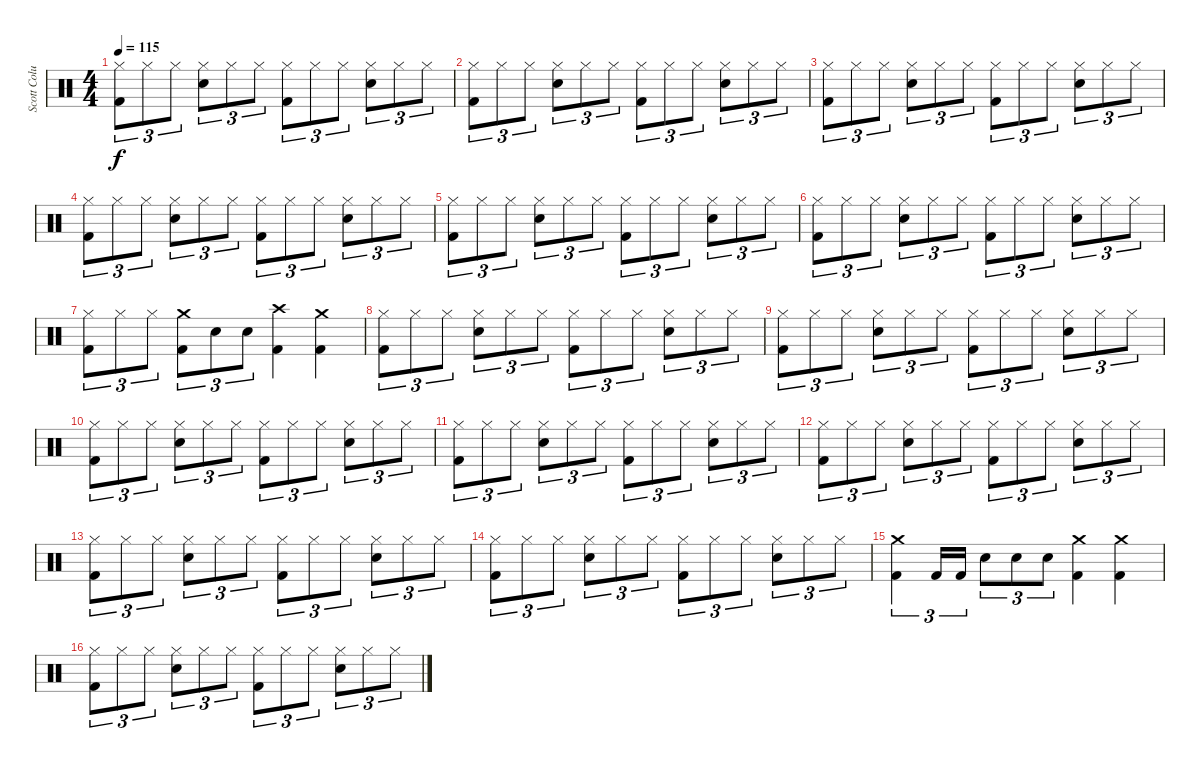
\track ("Scott Columus(Drums)" "Scott Colu") {instrument percussion}
\staff {score}
\articulation defaults
\ts (4 4)
\tempo 115
\clef neutral
\ks c
("Hi-Hat (closed)" "Kick (hit) 2").8{tu (3 2) dy f} "Hi-Hat (closed)".8{tu (3 2)} "Hi-Hat (closed)".8{tu (3 2)} ("Hi-Hat (closed)" "Snare (hit) 2").8{tu (3 2)} "Hi-Hat (closed)".8{tu (3 2)} "Hi-Hat (closed)".8{tu (3 2)} ("Hi-Hat (closed)" "Kick (hit) 2").8{tu (3 2)} "Hi-Hat (closed)".8{tu (3 2)} "Hi-Hat (closed)".8{tu (3 2)} ("Hi-Hat (closed)" "Snare (hit) 2").8{tu (3 2)} "Hi-Hat (closed)".8{tu (3 2)} "Hi-Hat (closed)".8{tu (3 2)} |
("Hi-Hat (closed)" "Kick (hit) 2").8{tu (3 2)} "Hi-Hat (closed)".8{tu (3 2)} "Hi-Hat (closed)".8{tu (3 2)} ("Hi-Hat (closed)" "Snare (hit) 2").8{tu (3 2)} "Hi-Hat (closed)".8{tu (3 2)} "Hi-Hat (closed)".8{tu (3 2)} ("Hi-Hat (closed)" "Kick (hit) 2").8{tu (3 2)} "Hi-Hat (closed)".8{tu (3 2)} "Hi-Hat (closed)".8{tu (3 2)} ("Hi-Hat (closed)" "Snare (hit) 2").8{tu (3 2)} "Hi-Hat (closed)".8{tu (3 2)} "Hi-Hat (closed)".8{tu (3 2)} |
("Hi-Hat (closed)" "Kick (hit) 2").8{tu (3 2)} "Hi-Hat (closed)".8{tu (3 2)} "Hi-Hat (closed)".8{tu (3 2)} ("Hi-Hat (closed)" "Snare (hit) 2").8{tu (3 2)} "Hi-Hat (closed)".8{tu (3 2)} "Hi-Hat (closed)".8{tu (3 2)} ("Hi-Hat (closed)" "Kick (hit) 2").8{tu (3 2)} "Hi-Hat (closed)".8{tu (3 2)} "Hi-Hat (closed)".8{tu (3 2)} ("Hi-Hat (closed)" "Snare (hit) 2").8{tu (3 2)} "Hi-Hat (closed)".8{tu (3 2)} "Hi-Hat (closed)".8{tu (3 2)} |
("Hi-Hat (closed)" "Kick (hit) 2").8{tu (3 2)} "Hi-Hat (closed)".8{tu (3 2)} "Hi-Hat (closed)".8{tu (3 2)} ("Hi-Hat (closed)" "Snare (hit) 2").8{tu (3 2)} "Hi-Hat (closed)".8{tu (3 2)} "Hi-Hat (closed)".8{tu (3 2)} ("Hi-Hat (closed)" "Kick (hit) 2").8{tu (3 2)} "Hi-Hat (closed)".8{tu (3 2)} "Hi-Hat (closed)".8{tu (3 2)} ("Hi-Hat (closed)" "Snare (hit) 2").8{tu (3 2)} "Hi-Hat (closed)".8{tu (3 2)} "Hi-Hat (closed)".8{tu (3 2)} |
("Hi-Hat (closed)" "Kick (hit) 2").8{tu (3 2)} "Hi-Hat (closed)".8{tu (3 2)} "Hi-Hat (closed)".8{tu (3 2)} ("Hi-Hat (closed)" "Snare (hit) 2").8{tu (3 2)} "Hi-Hat (closed)".8{tu (3 2)} "Hi-Hat (closed)".8{tu (3 2)} ("Hi-Hat (closed)" "Kick (hit) 2").8{tu (3 2)} "Hi-Hat (closed)".8{tu (3 2)} "Hi-Hat (closed)".8{tu (3 2)} ("Hi-Hat (closed)" "Snare (hit) 2").8{tu (3 2)} "Hi-Hat (closed)".8{tu (3 2)} "Hi-Hat (closed)".8{tu (3 2)} |
("Hi-Hat (closed)" "Kick (hit) 2").8{tu (3 2)} "Hi-Hat (closed)".8{tu (3 2)} "Hi-Hat (closed)".8{tu (3 2)} ("Hi-Hat (closed)" "Snare (hit) 2").8{tu (3 2)} "Hi-Hat (closed)".8{tu (3 2)} "Hi-Hat (closed)".8{tu (3 2)} ("Hi-Hat (closed)" "Kick (hit) 2").8{tu (3 2)} "Hi-Hat (closed)".8{tu (3 2)} "Hi-Hat (closed)".8{tu (3 2)} ("Hi-Hat (closed)" "Snare (hit) 2").8{tu (3 2)} "Hi-Hat (closed)".8{tu (3 2)} "Hi-Hat (closed)".8{tu (3 2)} |
("Hi-Hat (closed)" "Kick (hit) 2").8{tu (3 2)} "Hi-Hat (closed)".8{tu (3 2)} "Hi-Hat (closed)".8{tu (3 2)} ("Crash medium (hit)" "Kick (hit) 2").8{tu (3 2)} "Snare (hit) 2".8{tu (3 2)} "Snare (hit) 2".8{tu (3 2)} ("Crash high (hit)" "Kick (hit) 2").4 ("Crash medium (hit)" "Kick (hit) 2").4 |
("Hi-Hat (closed)" "Kick (hit) 2").8{tu (3 2)} "Hi-Hat (closed)".8{tu (3 2)} "Hi-Hat (closed)".8{tu (3 2)} ("Hi-Hat (closed)" "Snare (hit) 2").8{tu (3 2)} "Hi-Hat (closed)".8{tu (3 2)} "Hi-Hat (closed)".8{tu (3 2)} ("Hi-Hat (closed)" "Kick (hit) 2").8{tu (3 2)} "Hi-Hat (closed)".8{tu (3 2)} "Hi-Hat (closed)".8{tu (3 2)} ("Hi-Hat (closed)" "Snare (hit) 2").8{tu (3 2)} "Hi-Hat (closed)".8{tu (3 2)} "Hi-Hat (closed)".8{tu (3 2)} |
("Hi-Hat (closed)" "Kick (hit) 2").8{tu (3 2)} "Hi-Hat (closed)".8{tu (3 2)} "Hi-Hat (closed)".8{tu (3 2)} ("Hi-Hat (closed)" "Snare (hit) 2").8{tu (3 2)} "Hi-Hat (closed)".8{tu (3 2)} "Hi-Hat (closed)".8{tu (3 2)} ("Hi-Hat (closed)" "Kick (hit) 2").8{tu (3 2)} "Hi-Hat (closed)".8{tu (3 2)} "Hi-Hat (closed)".8{tu (3 2)} ("Hi-Hat (closed)" "Snare (hit) 2").8{tu (3 2)} "Hi-Hat (closed)".8{tu (3 2)} "Hi-Hat (closed)".8{tu (3 2)} |
("Hi-Hat (closed)" "Kick (hit) 2").8{tu (3 2)} "Hi-Hat (closed)".8{tu (3 2)} "Hi-Hat (closed)".8{tu (3 2)} ("Hi-Hat (closed)" "Snare (hit) 2").8{tu (3 2)} "Hi-Hat (closed)".8{tu (3 2)} "Hi-Hat (closed)".8{tu (3 2)} ("Hi-Hat (closed)" "Kick (hit) 2").8{tu (3 2)} "Hi-Hat (closed)".8{tu (3 2)} "Hi-Hat (closed)".8{tu (3 2)} ("Hi-Hat (closed)" "Snare (hit) 2").8{tu (3 2)} "Hi-Hat (closed)".8{tu (3 2)} "Hi-Hat (closed)".8{tu (3 2)} |
("Hi-Hat (closed)" "Kick (hit) 2").8{tu (3 2)} "Hi-Hat (closed)".8{tu (3 2)} "Hi-Hat (closed)".8{tu (3 2)} ("Hi-Hat (closed)" "Snare (hit) 2").8{tu (3 2)} "Hi-Hat (closed)".8{tu (3 2)} "Hi-Hat (closed)".8{tu (3 2)} ("Hi-Hat (closed)" "Kick (hit) 2").8{tu (3 2)} "Hi-Hat (closed)".8{tu (3 2)} "Hi-Hat (closed)".8{tu (3 2)} ("Hi-Hat (closed)" "Snare (hit) 2").8{tu (3 2)} "Hi-Hat (closed)".8{tu (3 2)} "Hi-Hat (closed)".8{tu (3 2)} |
("Hi-Hat (closed)" "Kick (hit) 2").8{tu (3 2)} "Hi-Hat (closed)".8{tu (3 2)} "Hi-Hat (closed)".8{tu (3 2)} ("Hi-Hat (closed)" "Snare (hit) 2").8{tu (3 2)} "Hi-Hat (closed)".8{tu (3 2)} "Hi-Hat (closed)".8{tu (3 2)} ("Hi-Hat (closed)" "Kick (hit) 2").8{tu (3 2)} "Hi-Hat (closed)".8{tu (3 2)} "Hi-Hat (closed)".8{tu (3 2)} ("Hi-Hat (closed)" "Snare (hit) 2").8{tu (3 2)} "Hi-Hat (closed)".8{tu (3 2)} "Hi-Hat (closed)".8{tu (3 2)} |
("Hi-Hat (closed)" "Kick (hit) 2").8{tu (3 2)} "Hi-Hat (closed)".8{tu (3 2)} "Hi-Hat (closed)".8{tu (3 2)} ("Hi-Hat (closed)" "Snare (hit) 2").8{tu (3 2)} "Hi-Hat (closed)".8{tu (3 2)} "Hi-Hat (closed)".8{tu (3 2)} ("Hi-Hat (closed)" "Kick (hit) 2").8{tu (3 2)} "Hi-Hat (closed)".8{tu (3 2)} "Hi-Hat (closed)".8{tu (3 2)} ("Hi-Hat (closed)" "Snare (hit) 2").8{tu (3 2)} "Hi-Hat (closed)".8{tu (3 2)} "Hi-Hat (closed)".8{tu (3 2)} |
("Hi-Hat (closed)" "Kick (hit) 2").8{tu (3 2)} "Hi-Hat (closed)".8{tu (3 2)} "Hi-Hat (closed)".8{tu (3 2)} ("Hi-Hat (closed)" "Snare (hit) 2").8{tu (3 2)} "Hi-Hat (closed)".8{tu (3 2)} "Hi-Hat (closed)".8{tu (3 2)} ("Hi-Hat (closed)" "Kick (hit) 2").8{tu (3 2)} "Hi-Hat (closed)".8{tu (3 2)} "Hi-Hat (closed)".8{tu (3 2)} ("Hi-Hat (closed)" "Snare (hit) 2").8{tu (3 2)} "Hi-Hat (closed)".8{tu (3 2)} "Hi-Hat (closed)".8{tu (3 2)} |
("Crash medium (hit)" "Kick (hit) 2").4{tu (3 2)} "Kick (hit) 2".16{tu (3 2)} "Kick (hit) 2".16{tu (3 2)} "Snare (hit) 2".8{tu (3 2)} "Snare (hit) 2".8{tu (3 2)} "Snare (hit) 2".8{tu (3 2)} ("Crash medium (hit)" "Kick (hit) 2").4 ("Crash medium (hit)" "Kick (hit) 2").4 |
("Hi-Hat (closed)" "Kick (hit) 2").8{tu (3 2)} "Hi-Hat (closed)".8{tu (3 2)} "Hi-Hat (closed)".8{tu (3 2)} ("Hi-Hat (closed)" "Snare (hit) 2").8{tu (3 2)} "Hi-Hat (closed)".8{tu (3 2)} "Hi-Hat (closed)".8{tu (3 2)} ("Hi-Hat (closed)" "Kick (hit) 2").8{tu (3 2)} "Hi-Hat (closed)".8{tu (3 2)} "Hi-Hat (closed)".8{tu (3 2)} ("Hi-Hat (closed)" "Snare (hit) 2").8{tu (3 2)} "Hi-Hat (closed)".8{tu (3 2)} "Hi-Hat (closed)".8{tu (3 2)}
